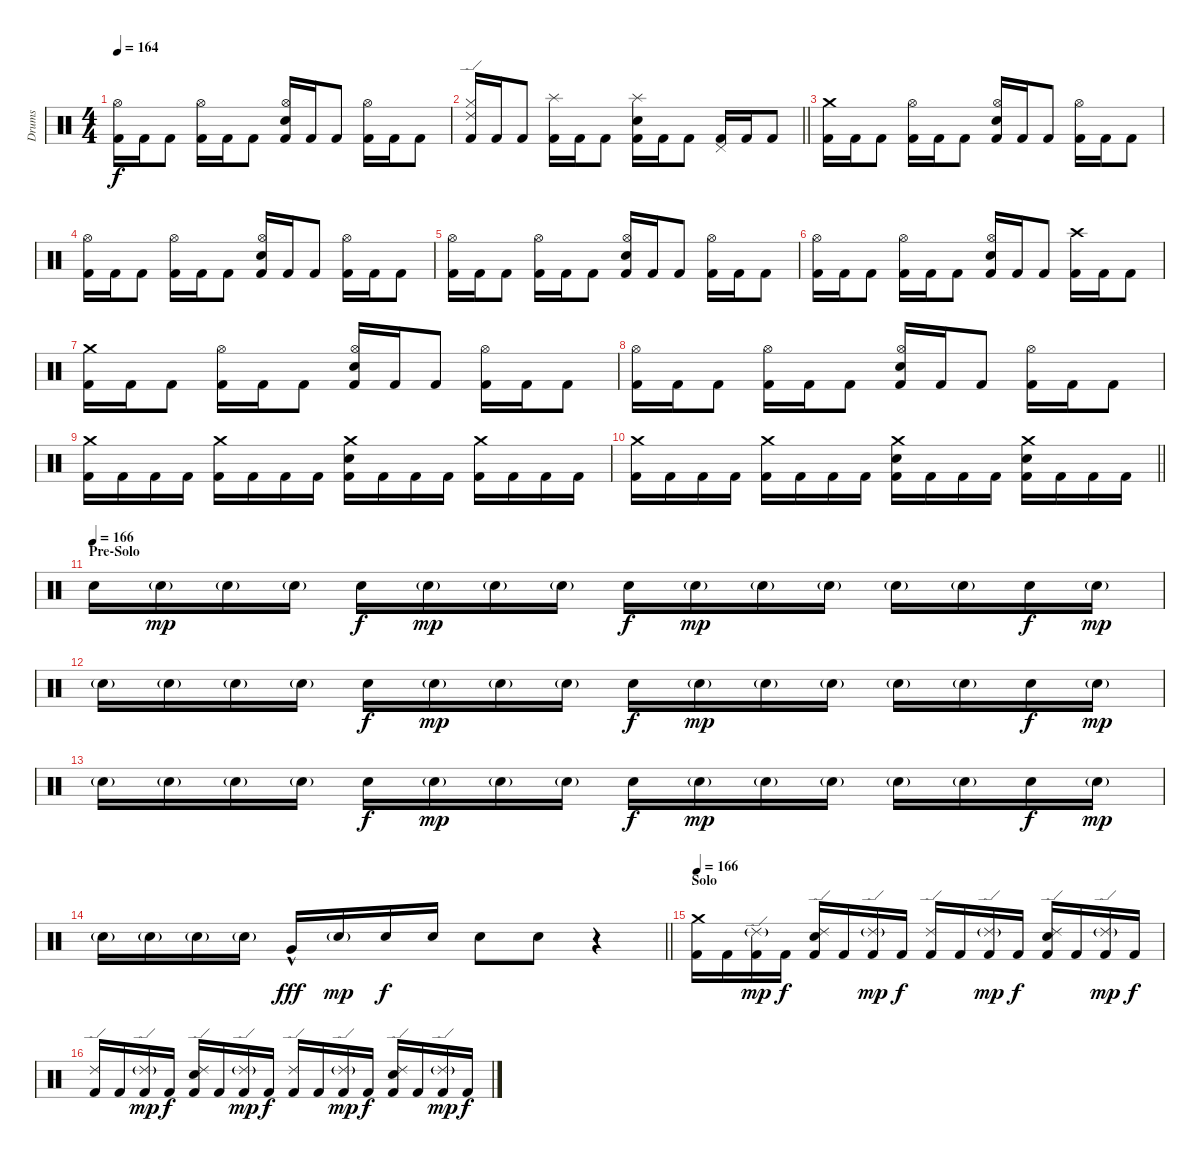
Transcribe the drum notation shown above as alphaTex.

\track ("Drums" "Drums") {instrument percussion}
\staff {score}
\articulation defaults
\ts (4 4)
\tempo 164
\clef neutral
\ks c
("Kick (hit) 2" "Hi-Hat (open)").16{dy f} "Kick (hit) 2".16 "Kick (hit) 2".8 ("Kick (hit) 2" "Hi-Hat (open)").16 "Kick (hit) 2".16 "Kick (hit) 2".8 ("Kick (hit) 2" "Snare (hit) 2" "Hi-Hat (open)").16 "Kick (hit) 2".16 "Kick (hit) 2".8 ("Kick (hit) 2" "Hi-Hat (open)").16 "Kick (hit) 2".16 "Kick (hit) 2".8 |
\barLineRight lightlight
("Kick (hit) 2" "Hi-Hat (closed)" "Ride (edge) 2").16 "Kick (hit) 2".16 "Kick (hit) 2".8 ("Kick (hit) 2" "Splash (hit)").16 "Kick (hit) 2".16 "Kick (hit) 2".8 ("Kick (hit) 2" "Snare (hit) 2" "Splash (hit)").16 "Kick (hit) 2".16 "Kick (hit) 2".8 ("Kick (hit) 2" "Pedal Hi-Hat (hit)").16 "Kick (hit) 2".16 "Kick (hit) 2".8 |
\section ("" "")
("Kick (hit) 2" "Crash medium (hit)").16 "Kick (hit) 2".16 "Kick (hit) 2".8 ("Kick (hit) 2" "Hi-Hat (open)").16 "Kick (hit) 2".16 "Kick (hit) 2".8 ("Kick (hit) 2" "Snare (hit) 2" "Hi-Hat (open)").16 "Kick (hit) 2".16 "Kick (hit) 2".8 ("Kick (hit) 2" "Hi-Hat (open)").16 "Kick (hit) 2".16 "Kick (hit) 2".8 |
("Kick (hit) 2" "Hi-Hat (open)").16 "Kick (hit) 2".16 "Kick (hit) 2".8 ("Kick (hit) 2" "Hi-Hat (open)").16 "Kick (hit) 2".16 "Kick (hit) 2".8 ("Kick (hit) 2" "Snare (hit) 2" "Hi-Hat (open)").16 "Kick (hit) 2".16 "Kick (hit) 2".8 ("Kick (hit) 2" "Hi-Hat (open)").16 "Kick (hit) 2".16 "Kick (hit) 2".8 |
("Kick (hit) 2" "Hi-Hat (open)").16 "Kick (hit) 2".16 "Kick (hit) 2".8 ("Kick (hit) 2" "Hi-Hat (open)").16 "Kick (hit) 2".16 "Kick (hit) 2".8 ("Kick (hit) 2" "Snare (hit) 2" "Hi-Hat (open)").16 "Kick (hit) 2".16 "Kick (hit) 2".8 ("Kick (hit) 2" "Hi-Hat (open)").16 "Kick (hit) 2".16 "Kick (hit) 2".8 |
("Kick (hit) 2" "Hi-Hat (open)").16 "Kick (hit) 2".16 "Kick (hit) 2".8 ("Kick (hit) 2" "Hi-Hat (open)").16 "Kick (hit) 2".16 "Kick (hit) 2".8 ("Kick (hit) 2" "Snare (hit) 2" "Hi-Hat (open)").16 "Kick (hit) 2".16 "Kick (hit) 2".8 ("Kick (hit) 2" "Crash high (hit)").16 "Kick (hit) 2".16 "Kick (hit) 2".8 |
("Kick (hit) 2" "Crash medium (hit)").16 "Kick (hit) 2".16 "Kick (hit) 2".8 ("Kick (hit) 2" "Hi-Hat (open)").16 "Kick (hit) 2".16 "Kick (hit) 2".8 ("Kick (hit) 2" "Snare (hit) 2" "Hi-Hat (open)").16 "Kick (hit) 2".16 "Kick (hit) 2".8 ("Kick (hit) 2" "Hi-Hat (open)").16 "Kick (hit) 2".16 "Kick (hit) 2".8 |
("Kick (hit) 2" "Hi-Hat (open)").16 "Kick (hit) 2".16 "Kick (hit) 2".8 ("Kick (hit) 2" "Hi-Hat (open)").16 "Kick (hit) 2".16 "Kick (hit) 2".8 ("Kick (hit) 2" "Snare (hit) 2" "Hi-Hat (open)").16 "Kick (hit) 2".16 "Kick (hit) 2".8 ("Kick (hit) 2" "Hi-Hat (open)").16 "Kick (hit) 2".16 "Kick (hit) 2".8 |
("Kick (hit) 2" "Crash medium (hit)").16 "Kick (hit) 2".16 "Kick (hit) 2".16 "Kick (hit) 2".16 ("Kick (hit) 2" "Crash medium (hit)").16 "Kick (hit) 2".16 "Kick (hit) 2".16 "Kick (hit) 2".16 ("Kick (hit) 2" "Snare (hit) 2" "Crash medium (hit)").16 "Kick (hit) 2".16 "Kick (hit) 2".16 "Kick (hit) 2".16 ("Kick (hit) 2" "Crash medium (hit)").16 "Kick (hit) 2".16 "Kick (hit) 2".16 "Kick (hit) 2".16 |
\barLineRight lightlight
("Kick (hit) 2" "Crash medium (hit)").16 "Kick (hit) 2".16 "Kick (hit) 2".16 "Kick (hit) 2".16 ("Kick (hit) 2" "Crash medium (hit)").16 "Kick (hit) 2".16 "Kick (hit) 2".16 "Kick (hit) 2".16 ("Kick (hit) 2" "Snare (hit) 2" "Crash medium (hit)").16 "Kick (hit) 2".16 "Kick (hit) 2".16 "Kick (hit) 2".16 ("Kick (hit) 2" "Snare (hit) 2" "Crash medium (hit)").16 "Kick (hit) 2".16 "Kick (hit) 2".16 "Kick (hit) 2".16 |
\section ("" "Pre-Solo")
\tempo (166)
"Snare (hit) 2".16 "Snare (hit) 2"{g}.16{dy mp} "Snare (hit) 2"{g}.16 "Snare (hit) 2"{g}.16 "Snare (hit) 2".16{dy f} "Snare (hit) 2"{g}.16{dy mp} "Snare (hit) 2"{g}.16 "Snare (hit) 2"{g}.16 "Snare (hit) 2".16{dy f} "Snare (hit) 2"{g}.16{dy mp} "Snare (hit) 2"{g}.16 "Snare (hit) 2"{g}.16 "Snare (hit) 2"{g}.16 "Snare (hit) 2"{g}.16 "Snare (hit) 2".16{dy f} "Snare (hit) 2"{g}.16{dy mp} |
"Snare (hit) 2"{g}.16 "Snare (hit) 2"{g}.16 "Snare (hit) 2"{g}.16 "Snare (hit) 2"{g}.16 "Snare (hit) 2".16{dy f} "Snare (hit) 2"{g}.16{dy mp} "Snare (hit) 2"{g}.16 "Snare (hit) 2"{g}.16 "Snare (hit) 2".16{dy f} "Snare (hit) 2"{g}.16{dy mp} "Snare (hit) 2"{g}.16 "Snare (hit) 2"{g}.16 "Snare (hit) 2"{g}.16 "Snare (hit) 2"{g}.16 "Snare (hit) 2".16{dy f} "Snare (hit) 2"{g}.16{dy mp} |
"Snare (hit) 2"{g}.16 "Snare (hit) 2"{g}.16 "Snare (hit) 2"{g}.16 "Snare (hit) 2"{g}.16 "Snare (hit) 2".16{dy f} "Snare (hit) 2"{g}.16{dy mp} "Snare (hit) 2"{g}.16 "Snare (hit) 2"{g}.16 "Snare (hit) 2".16{dy f} "Snare (hit) 2"{g}.16{dy mp} "Snare (hit) 2"{g}.16 "Snare (hit) 2"{g}.16 "Snare (hit) 2"{g}.16 "Snare (hit) 2"{g}.16 "Snare (hit) 2".16{dy f} "Snare (hit) 2"{g}.16{dy mp} |
\barLineRight lightlight "Snare (hit) 2"{g}.16 "Snare (hit) 2"{g}.16 "Snare (hit) 2"{g}.16 "Snare (hit) 2"{g}.16 "Very Low Tom (hit)"{hac}.16{dy fff} "Snare (hit) 2"{g}.16{dy mp} "Snare (hit) 2".16{dy f} "Snare (hit) 2".16 "Snare (hit) 2".8 "Snare (hit) 2".8
r.4 |
\section ("" "Solo")
\tempo 166
("Kick (hit) 2" "Crash medium (hit)").16 "Kick (hit) 2".16 ("Kick (hit) 2" "Ride (edge) 2"{g}).16{dy mp} "Kick (hit) 2".16{dy f} ("Kick (hit) 2" "Snare (hit) 2" "Ride (edge) 2").16 "Kick (hit) 2".16 ("Kick (hit) 2" "Ride (edge) 2"{g}).16{dy mp} "Kick (hit) 2".16{dy f} ("Kick (hit) 2" "Ride (edge) 2").16 "Kick (hit) 2".16 ("Kick (hit) 2" "Ride (edge) 2"{g}).16{dy mp} "Kick (hit) 2".16{dy f} ("Kick (hit) 2" "Snare (hit) 2" "Ride (edge) 2").16 "Kick (hit) 2".16 ("Kick (hit) 2" "Ride (edge) 2"{g}).16{dy mp} "Kick (hit) 2".16{dy f} |
("Kick (hit) 2" "Ride (edge) 2").16 "Kick (hit) 2".16 ("Kick (hit) 2" "Ride (edge) 2"{g}).16{dy mp} "Kick (hit) 2".16{dy f} ("Kick (hit) 2" "Snare (hit) 2" "Ride (edge) 2").16 "Kick (hit) 2".16 ("Kick (hit) 2" "Ride (edge) 2"{g}).16{dy mp} "Kick (hit) 2".16{dy f} ("Kick (hit) 2" "Ride (edge) 2").16 "Kick (hit) 2".16 ("Kick (hit) 2" "Ride (edge) 2"{g}).16{dy mp} "Kick (hit) 2".16{dy f} ("Kick (hit) 2" "Snare (hit) 2" "Ride (edge) 2").16 "Kick (hit) 2".16 ("Kick (hit) 2" "Ride (edge) 2"{g}).16{dy mp} "Kick (hit) 2".16{dy f}
